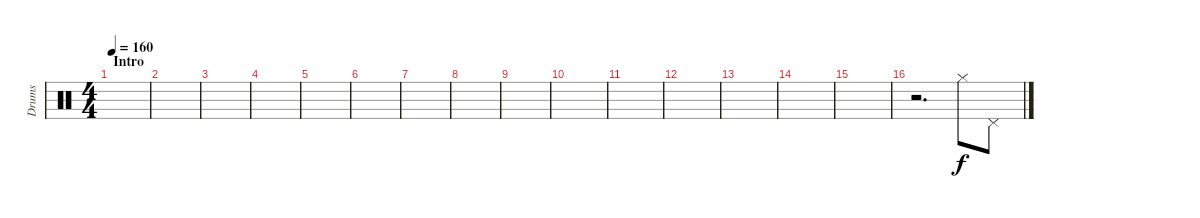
\track ("Drums" "Drums") {instrument percussion}
\staff {score}
\articulation defaults
\ts (4 4)
\section ("" "Intro")
\tempo 160
\clef neutral
\ks c
|
|
|
|
|
|
|
|
|
|
|
|
|
|
|
r.2{d} "Hi-Hat (closed)".8 "Pedal Hi-Hat (hit)".8
